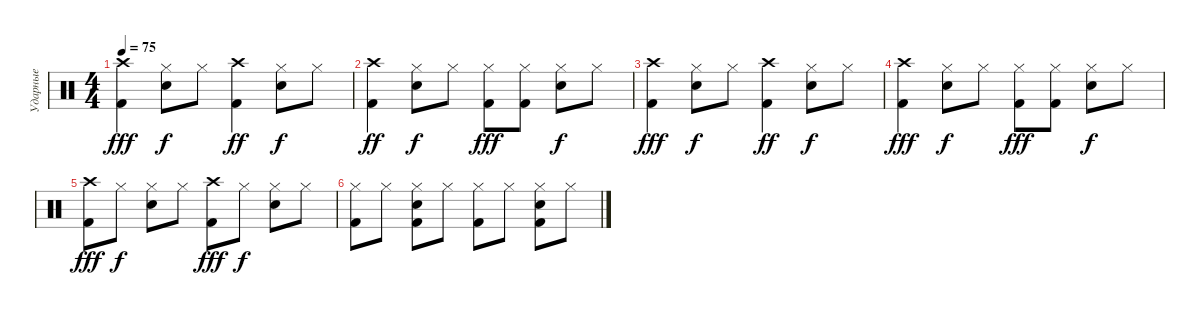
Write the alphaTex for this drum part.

\track ("Ударные" "Ударные") {instrument percussion}
\staff
\articulation defaults
\ts (4 4)
\tempo 75
\clef neutral
\ks c
("Kick (hit) 2" "Crash high (hit)").4{dy fff} ("Snare (hit) 2" "Hi-Hat (closed)").8{dy f} "Hi-Hat (closed)".8 ("Kick (hit) 2" "Crash high (hit)").4{dy ff} ("Snare (hit) 2" "Hi-Hat (closed)").8{dy f} "Hi-Hat (closed)".8 |
("Kick (hit) 2" "Crash high (hit)").4{dy ff} ("Snare (hit) 2" "Hi-Hat (closed)").8{dy f} "Hi-Hat (closed)".8 ("Kick (hit) 2" "Hi-Hat (closed)").8{dy fff} ("Kick (hit) 2" "Hi-Hat (closed)").8 ("Snare (hit) 2" "Hi-Hat (closed)").8{dy f} "Hi-Hat (closed)".8 |
("Kick (hit) 2" "Crash high (hit)").4{dy fff} ("Snare (hit) 2" "Hi-Hat (closed)").8{dy f} "Hi-Hat (closed)".8 ("Kick (hit) 2" "Crash high (hit)").4{dy ff} ("Snare (hit) 2" "Hi-Hat (closed)").8{dy f} "Hi-Hat (closed)".8 |
("Kick (hit) 2" "Crash high (hit)").4{dy fff} ("Snare (hit) 2" "Hi-Hat (closed)").8{dy f} "Hi-Hat (closed)".8 ("Kick (hit) 2" "Hi-Hat (closed)").8{dy fff} ("Kick (hit) 2" "Hi-Hat (closed)").8 ("Snare (hit) 2" "Hi-Hat (closed)").8{dy f} "Hi-Hat (closed)".8 |
("Kick (hit) 2" "Crash high (hit)").8{dy fff} "Hi-Hat (closed)".8{dy f} ("Snare (hit) 2" "Hi-Hat (closed)").8 "Hi-Hat (closed)".8 ("Kick (hit) 2" "Crash high (hit)").8{dy fff} "Hi-Hat (closed)".8{dy f} ("Snare (hit) 2" "Hi-Hat (closed)").8 "Hi-Hat (closed)".8 |
("Kick (hit) 2" "Hi-Hat (closed)").8 "Hi-Hat (closed)".8 ("Kick (hit) 2" "Snare (hit) 2" "Hi-Hat (closed)").8 "Hi-Hat (closed)".8 ("Kick (hit) 2" "Hi-Hat (closed)").8 "Hi-Hat (closed)".8 ("Kick (hit) 2" "Snare (hit) 2" "Hi-Hat (closed)").8 "Hi-Hat (closed)".8
